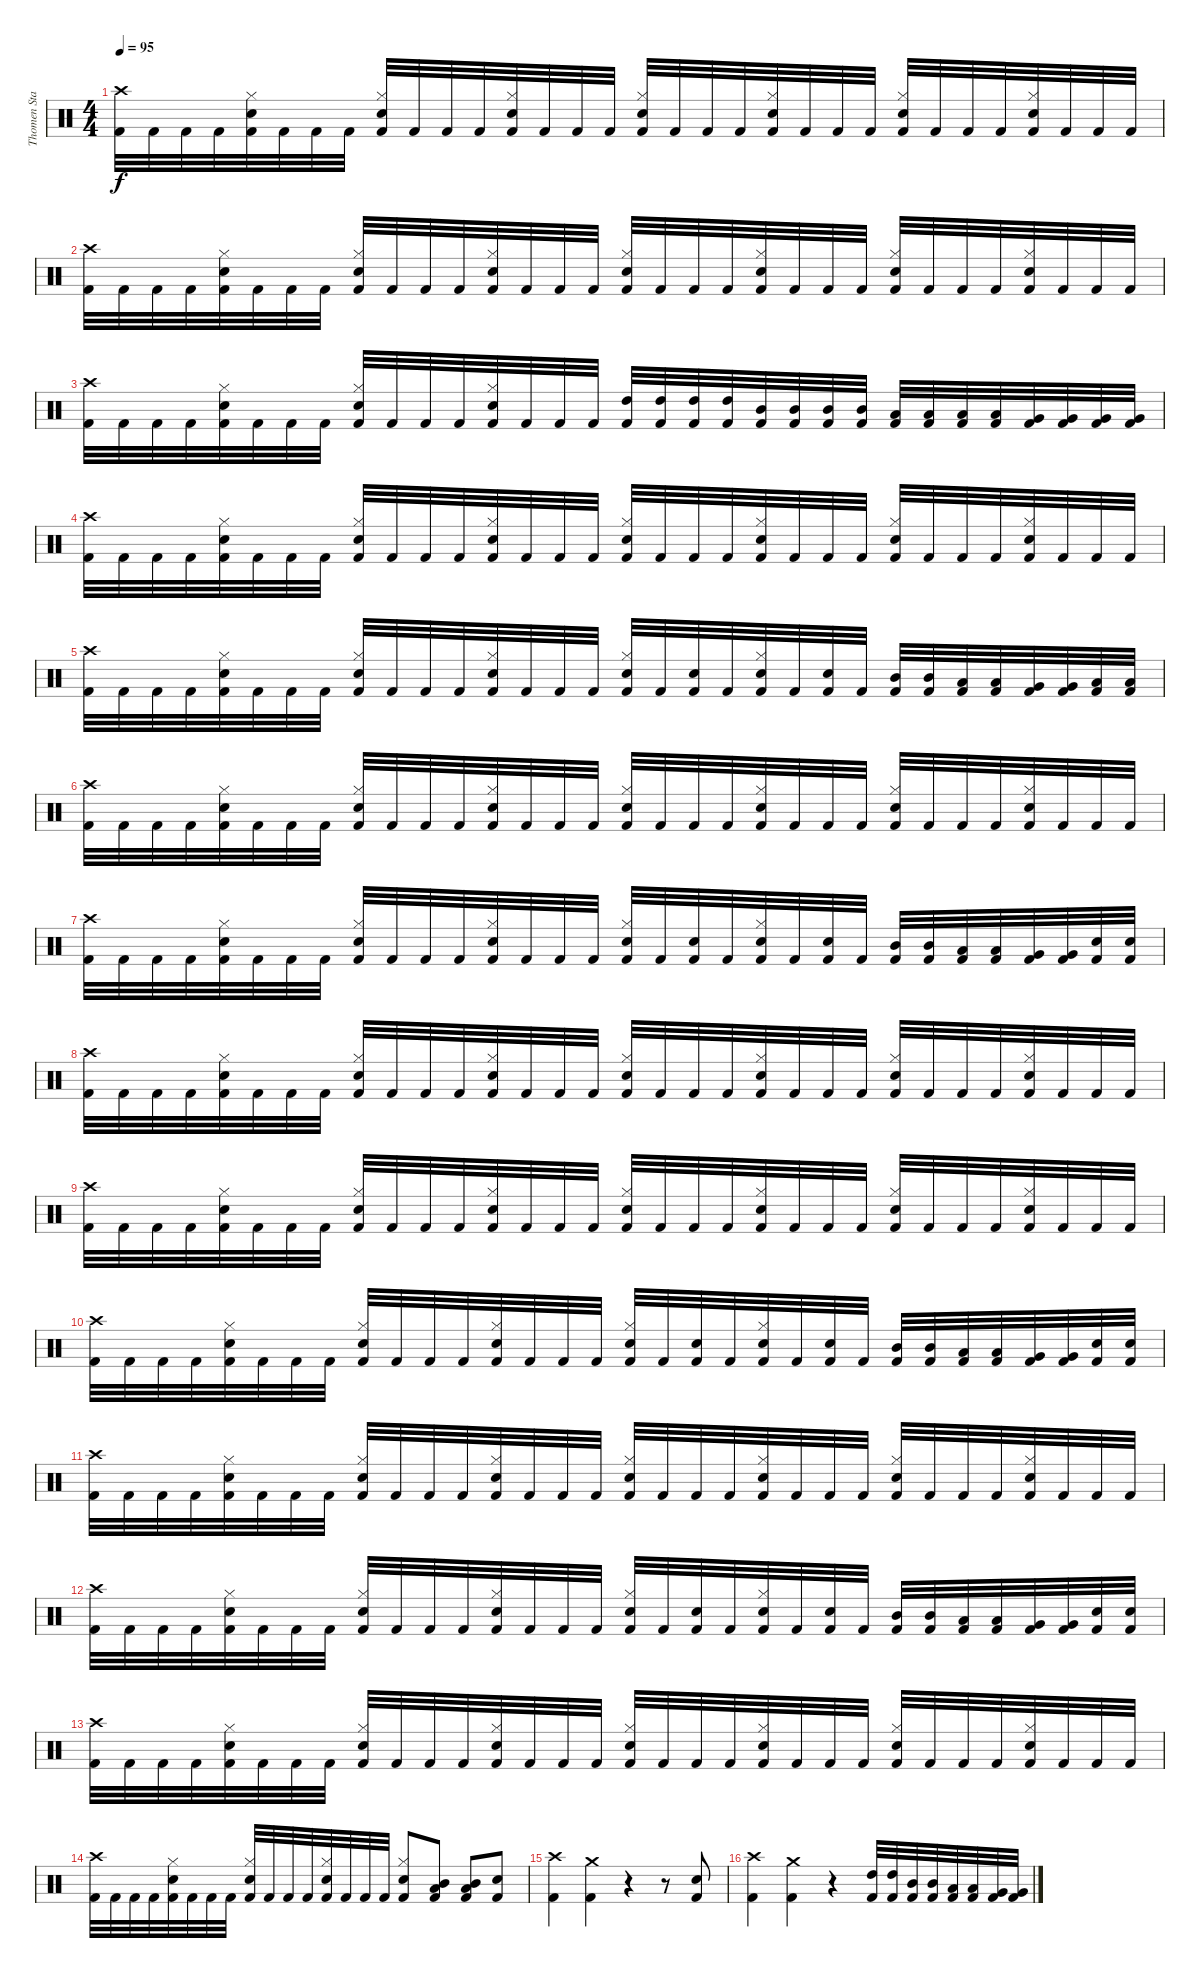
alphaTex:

\track ("Thomen Stauch" "Thomen Sta") {instrument percussion}
\staff {score}
\articulation defaults
\ts (4 4)
\tempo 95
\clef neutral
\ks c
("Crash high (hit)" "Kick (hit) 2").32{dy f} "Kick (hit) 2".32 "Kick (hit) 2".32 "Kick (hit) 2".32 ("Hi-Hat (closed)" "Snare (hit) 2" "Kick (hit) 2").32 "Kick (hit) 2".32 "Kick (hit) 2".32 "Kick (hit) 2".32 ("Hi-Hat (closed)" "Snare (hit) 2" "Kick (hit) 2").32 "Kick (hit) 2".32 "Kick (hit) 2".32 "Kick (hit) 2".32 ("Hi-Hat (closed)" "Snare (hit) 2" "Kick (hit) 2").32 "Kick (hit) 2".32 "Kick (hit) 2".32 "Kick (hit) 2".32 ("Hi-Hat (closed)" "Snare (hit) 2" "Kick (hit) 2").32 "Kick (hit) 2".32 "Kick (hit) 2".32 "Kick (hit) 2".32 ("Hi-Hat (closed)" "Snare (hit) 2" "Kick (hit) 2").32 "Kick (hit) 2".32 "Kick (hit) 2".32 "Kick (hit) 2".32 ("Hi-Hat (closed)" "Snare (hit) 2" "Kick (hit) 2").32 "Kick (hit) 2".32 "Kick (hit) 2".32 "Kick (hit) 2".32 ("Hi-Hat (closed)" "Snare (hit) 2" "Kick (hit) 2").32 "Kick (hit) 2".32 "Kick (hit) 2".32 "Kick (hit) 2".32 |
("Crash high (hit)" "Kick (hit) 2").32 "Kick (hit) 2".32 "Kick (hit) 2".32 "Kick (hit) 2".32 ("Hi-Hat (closed)" "Snare (hit) 2" "Kick (hit) 2").32 "Kick (hit) 2".32 "Kick (hit) 2".32 "Kick (hit) 2".32 ("Hi-Hat (closed)" "Snare (hit) 2" "Kick (hit) 2").32 "Kick (hit) 2".32 "Kick (hit) 2".32 "Kick (hit) 2".32 ("Hi-Hat (closed)" "Snare (hit) 2" "Kick (hit) 2").32 "Kick (hit) 2".32 "Kick (hit) 2".32 "Kick (hit) 2".32 ("Hi-Hat (closed)" "Snare (hit) 2" "Kick (hit) 2").32 "Kick (hit) 2".32 "Kick (hit) 2".32 "Kick (hit) 2".32 ("Hi-Hat (closed)" "Snare (hit) 2" "Kick (hit) 2").32 "Kick (hit) 2".32 "Kick (hit) 2".32 "Kick (hit) 2".32 ("Hi-Hat (closed)" "Snare (hit) 2" "Kick (hit) 2").32 "Kick (hit) 2".32 "Kick (hit) 2".32 "Kick (hit) 2".32 ("Hi-Hat (closed)" "Snare (hit) 2" "Kick (hit) 2").32 "Kick (hit) 2".32 "Kick (hit) 2".32 "Kick (hit) 2".32 |
("Crash high (hit)" "Kick (hit) 2").32 "Kick (hit) 2".32 "Kick (hit) 2".32 "Kick (hit) 2".32 ("Hi-Hat (closed)" "Snare (hit) 2" "Kick (hit) 2").32 "Kick (hit) 2".32 "Kick (hit) 2".32 "Kick (hit) 2".32 ("Hi-Hat (closed)" "Snare (hit) 2" "Kick (hit) 2").32 "Kick (hit) 2".32 "Kick (hit) 2".32 "Kick (hit) 2".32 ("Hi-Hat (closed)" "Snare (hit) 2" "Kick (hit) 2").32 "Kick (hit) 2".32 "Kick (hit) 2".32 "Kick (hit) 2".32 ("High Tom (hit)" "Kick (hit) 2").32 ("High Tom (hit)" "Kick (hit) 2").32 ("High Tom (hit)" "Kick (hit) 2").32 ("High Tom (hit)" "Kick (hit) 2").32 ("Mid Tom (hit)" "Kick (hit) 2").32 ("Mid Tom (hit)" "Kick (hit) 2").32 ("Mid Tom (hit)" "Kick (hit) 2").32 ("Mid Tom (hit)" "Kick (hit) 2").32 ("Low Tom (hit)" "Kick (hit) 2").32 ("Low Tom (hit)" "Kick (hit) 2").32 ("Low Tom (hit)" "Kick (hit) 2").32 ("Low Tom (hit)" "Kick (hit) 2").32 ("Very Low Tom (hit)" "Kick (hit) 2").32 ("Very Low Tom (hit)" "Kick (hit) 2").32 ("Very Low Tom (hit)" "Kick (hit) 2").32 ("Very Low Tom (hit)" "Kick (hit) 2").32 |
("Crash high (hit)" "Kick (hit) 2").32 "Kick (hit) 2".32 "Kick (hit) 2".32 "Kick (hit) 2".32 ("Hi-Hat (closed)" "Snare (hit) 2" "Kick (hit) 2").32 "Kick (hit) 2".32 "Kick (hit) 2".32 "Kick (hit) 2".32 ("Hi-Hat (closed)" "Snare (hit) 2" "Kick (hit) 2").32 "Kick (hit) 2".32 "Kick (hit) 2".32 "Kick (hit) 2".32 ("Hi-Hat (closed)" "Snare (hit) 2" "Kick (hit) 2").32 "Kick (hit) 2".32 "Kick (hit) 2".32 "Kick (hit) 2".32 ("Hi-Hat (closed)" "Snare (hit) 2" "Kick (hit) 2").32 "Kick (hit) 2".32 "Kick (hit) 2".32 "Kick (hit) 2".32 ("Hi-Hat (closed)" "Snare (hit) 2" "Kick (hit) 2").32 "Kick (hit) 2".32 "Kick (hit) 2".32 "Kick (hit) 2".32 ("Hi-Hat (closed)" "Snare (hit) 2" "Kick (hit) 2").32 "Kick (hit) 2".32 "Kick (hit) 2".32 "Kick (hit) 2".32 ("Hi-Hat (closed)" "Snare (hit) 2" "Kick (hit) 2").32 "Kick (hit) 2".32 "Kick (hit) 2".32 "Kick (hit) 2".32 |
("Crash high (hit)" "Kick (hit) 2").32 "Kick (hit) 2".32 "Kick (hit) 2".32 "Kick (hit) 2".32 ("Hi-Hat (closed)" "Snare (hit) 2" "Kick (hit) 2").32 "Kick (hit) 2".32 "Kick (hit) 2".32 "Kick (hit) 2".32 ("Hi-Hat (closed)" "Snare (hit) 2" "Kick (hit) 2").32 "Kick (hit) 2".32 "Kick (hit) 2".32 "Kick (hit) 2".32 ("Hi-Hat (closed)" "Snare (hit) 2" "Kick (hit) 2").32 "Kick (hit) 2".32 "Kick (hit) 2".32 "Kick (hit) 2".32 ("Hi-Hat (closed)" "Snare (hit) 2" "Kick (hit) 2").32 "Kick (hit) 2".32 ("Snare (hit) 2" "Kick (hit) 2").32 "Kick (hit) 2".32 ("Hi-Hat (closed)" "Snare (hit) 2" "Kick (hit) 2").32 "Kick (hit) 2".32 ("Snare (hit) 2" "Kick (hit) 2").32 "Kick (hit) 2".32 ("Mid Tom (hit)" "Kick (hit) 2").32 ("Mid Tom (hit)" "Kick (hit) 2").32 ("Low Tom (hit)" "Kick (hit) 2").32 ("Low Tom (hit)" "Kick (hit) 2").32 ("Very Low Tom (hit)" "Kick (hit) 2").32 ("Very Low Tom (hit)" "Kick (hit) 2").32 ("Low Floor Tom (hit)" "Kick (hit) 2").32 ("Low Floor Tom (hit)" "Kick (hit) 2").32 |
("Crash high (hit)" "Kick (hit) 2").32 "Kick (hit) 2".32 "Kick (hit) 2".32 "Kick (hit) 2".32 ("Hi-Hat (closed)" "Snare (hit) 2" "Kick (hit) 2").32 "Kick (hit) 2".32 "Kick (hit) 2".32 "Kick (hit) 2".32 ("Hi-Hat (closed)" "Snare (hit) 2" "Kick (hit) 2").32 "Kick (hit) 2".32 "Kick (hit) 2".32 "Kick (hit) 2".32 ("Hi-Hat (closed)" "Snare (hit) 2" "Kick (hit) 2").32 "Kick (hit) 2".32 "Kick (hit) 2".32 "Kick (hit) 2".32 ("Hi-Hat (closed)" "Snare (hit) 2" "Kick (hit) 2").32 "Kick (hit) 2".32 "Kick (hit) 2".32 "Kick (hit) 2".32 ("Hi-Hat (closed)" "Snare (hit) 2" "Kick (hit) 2").32 "Kick (hit) 2".32 "Kick (hit) 2".32 "Kick (hit) 2".32 ("Hi-Hat (closed)" "Snare (hit) 2" "Kick (hit) 2").32 "Kick (hit) 2".32 "Kick (hit) 2".32 "Kick (hit) 2".32 ("Hi-Hat (closed)" "Snare (hit) 2" "Kick (hit) 2").32 "Kick (hit) 2".32 "Kick (hit) 2".32 "Kick (hit) 2".32 |
("Crash high (hit)" "Kick (hit) 2").32 "Kick (hit) 2".32 "Kick (hit) 2".32 "Kick (hit) 2".32 ("Hi-Hat (closed)" "Snare (hit) 2" "Kick (hit) 2").32 "Kick (hit) 2".32 "Kick (hit) 2".32 "Kick (hit) 2".32 ("Hi-Hat (closed)" "Snare (hit) 2" "Kick (hit) 2").32 "Kick (hit) 2".32 "Kick (hit) 2".32 "Kick (hit) 2".32 ("Hi-Hat (closed)" "Snare (hit) 2" "Kick (hit) 2").32 "Kick (hit) 2".32 "Kick (hit) 2".32 "Kick (hit) 2".32 ("Hi-Hat (closed)" "Snare (hit) 2" "Kick (hit) 2").32 "Kick (hit) 2".32 ("Snare (hit) 2" "Kick (hit) 2").32 "Kick (hit) 2".32 ("Hi-Hat (closed)" "Snare (hit) 2" "Kick (hit) 2").32 "Kick (hit) 2".32 ("Snare (hit) 2" "Kick (hit) 2").32 "Kick (hit) 2".32 ("Mid Tom (hit)" "Kick (hit) 2").32 ("Mid Tom (hit)" "Kick (hit) 2").32 ("Low Tom (hit)" "Kick (hit) 2").32 ("Low Tom (hit)" "Kick (hit) 2").32 ("Very Low Tom (hit)" "Kick (hit) 2").32 ("Very Low Tom (hit)" "Kick (hit) 2").32 ("Snare (hit) 2" "Kick (hit) 2").32 ("Snare (hit) 2" "Kick (hit) 2").32 |
("Crash high (hit)" "Kick (hit) 2").32 "Kick (hit) 2".32 "Kick (hit) 2".32 "Kick (hit) 2".32 ("Hi-Hat (closed)" "Snare (hit) 2" "Kick (hit) 2").32 "Kick (hit) 2".32 "Kick (hit) 2".32 "Kick (hit) 2".32 ("Hi-Hat (closed)" "Snare (hit) 2" "Kick (hit) 2").32 "Kick (hit) 2".32 "Kick (hit) 2".32 "Kick (hit) 2".32 ("Hi-Hat (closed)" "Snare (hit) 2" "Kick (hit) 2").32 "Kick (hit) 2".32 "Kick (hit) 2".32 "Kick (hit) 2".32 ("Hi-Hat (closed)" "Snare (hit) 2" "Kick (hit) 2").32 "Kick (hit) 2".32 "Kick (hit) 2".32 "Kick (hit) 2".32 ("Hi-Hat (closed)" "Snare (hit) 2" "Kick (hit) 2").32 "Kick (hit) 2".32 "Kick (hit) 2".32 "Kick (hit) 2".32 ("Hi-Hat (closed)" "Snare (hit) 2" "Kick (hit) 2").32 "Kick (hit) 2".32 "Kick (hit) 2".32 "Kick (hit) 2".32 ("Hi-Hat (closed)" "Snare (hit) 2" "Kick (hit) 2").32 "Kick (hit) 2".32 "Kick (hit) 2".32 "Kick (hit) 2".32 |
("Crash high (hit)" "Kick (hit) 2").32 "Kick (hit) 2".32 "Kick (hit) 2".32 "Kick (hit) 2".32 ("Hi-Hat (closed)" "Snare (hit) 2" "Kick (hit) 2").32 "Kick (hit) 2".32 "Kick (hit) 2".32 "Kick (hit) 2".32 ("Hi-Hat (closed)" "Snare (hit) 2" "Kick (hit) 2").32 "Kick (hit) 2".32 "Kick (hit) 2".32 "Kick (hit) 2".32 ("Hi-Hat (closed)" "Snare (hit) 2" "Kick (hit) 2").32 "Kick (hit) 2".32 "Kick (hit) 2".32 "Kick (hit) 2".32 ("Hi-Hat (closed)" "Snare (hit) 2" "Kick (hit) 2").32 "Kick (hit) 2".32 "Kick (hit) 2".32 "Kick (hit) 2".32 ("Hi-Hat (closed)" "Snare (hit) 2" "Kick (hit) 2").32 "Kick (hit) 2".32 "Kick (hit) 2".32 "Kick (hit) 2".32 ("Hi-Hat (closed)" "Snare (hit) 2" "Kick (hit) 2").32 "Kick (hit) 2".32 "Kick (hit) 2".32 "Kick (hit) 2".32 ("Hi-Hat (closed)" "Snare (hit) 2" "Kick (hit) 2").32 "Kick (hit) 2".32 "Kick (hit) 2".32 "Kick (hit) 2".32 |
("Crash high (hit)" "Kick (hit) 2").32 "Kick (hit) 2".32 "Kick (hit) 2".32 "Kick (hit) 2".32 ("Hi-Hat (closed)" "Snare (hit) 2" "Kick (hit) 2").32 "Kick (hit) 2".32 "Kick (hit) 2".32 "Kick (hit) 2".32 ("Hi-Hat (closed)" "Snare (hit) 2" "Kick (hit) 2").32 "Kick (hit) 2".32 "Kick (hit) 2".32 "Kick (hit) 2".32 ("Hi-Hat (closed)" "Snare (hit) 2" "Kick (hit) 2").32 "Kick (hit) 2".32 "Kick (hit) 2".32 "Kick (hit) 2".32 ("Hi-Hat (closed)" "Snare (hit) 2" "Kick (hit) 2").32 "Kick (hit) 2".32 ("Snare (hit) 2" "Kick (hit) 2").32 "Kick (hit) 2".32 ("Hi-Hat (closed)" "Snare (hit) 2" "Kick (hit) 2").32 "Kick (hit) 2".32 ("Snare (hit) 2" "Kick (hit) 2").32 "Kick (hit) 2".32 ("Mid Tom (hit)" "Kick (hit) 2").32 ("Mid Tom (hit)" "Kick (hit) 2").32 ("Low Tom (hit)" "Kick (hit) 2").32 ("Low Tom (hit)" "Kick (hit) 2").32 ("Very Low Tom (hit)" "Kick (hit) 2").32 ("Very Low Tom (hit)" "Kick (hit) 2").32 ("Snare (hit) 2" "Kick (hit) 2").32 ("Snare (hit) 2" "Kick (hit) 2").32 |
("Crash high (hit)" "Kick (hit) 2").32 "Kick (hit) 2".32 "Kick (hit) 2".32 "Kick (hit) 2".32 ("Hi-Hat (closed)" "Snare (hit) 2" "Kick (hit) 2").32 "Kick (hit) 2".32 "Kick (hit) 2".32 "Kick (hit) 2".32 ("Hi-Hat (closed)" "Snare (hit) 2" "Kick (hit) 2").32 "Kick (hit) 2".32 "Kick (hit) 2".32 "Kick (hit) 2".32 ("Hi-Hat (closed)" "Snare (hit) 2" "Kick (hit) 2").32 "Kick (hit) 2".32 "Kick (hit) 2".32 "Kick (hit) 2".32 ("Hi-Hat (closed)" "Snare (hit) 2" "Kick (hit) 2").32 "Kick (hit) 2".32 "Kick (hit) 2".32 "Kick (hit) 2".32 ("Hi-Hat (closed)" "Snare (hit) 2" "Kick (hit) 2").32 "Kick (hit) 2".32 "Kick (hit) 2".32 "Kick (hit) 2".32 ("Hi-Hat (closed)" "Snare (hit) 2" "Kick (hit) 2").32 "Kick (hit) 2".32 "Kick (hit) 2".32 "Kick (hit) 2".32 ("Hi-Hat (closed)" "Snare (hit) 2" "Kick (hit) 2").32 "Kick (hit) 2".32 "Kick (hit) 2".32 "Kick (hit) 2".32 |
("Crash high (hit)" "Kick (hit) 2").32 "Kick (hit) 2".32 "Kick (hit) 2".32 "Kick (hit) 2".32 ("Hi-Hat (closed)" "Snare (hit) 2" "Kick (hit) 2").32 "Kick (hit) 2".32 "Kick (hit) 2".32 "Kick (hit) 2".32 ("Hi-Hat (closed)" "Snare (hit) 2" "Kick (hit) 2").32 "Kick (hit) 2".32 "Kick (hit) 2".32 "Kick (hit) 2".32 ("Hi-Hat (closed)" "Snare (hit) 2" "Kick (hit) 2").32 "Kick (hit) 2".32 "Kick (hit) 2".32 "Kick (hit) 2".32 ("Hi-Hat (closed)" "Snare (hit) 2" "Kick (hit) 2").32 "Kick (hit) 2".32 ("Snare (hit) 2" "Kick (hit) 2").32 "Kick (hit) 2".32 ("Hi-Hat (closed)" "Snare (hit) 2" "Kick (hit) 2").32 "Kick (hit) 2".32 ("Snare (hit) 2" "Kick (hit) 2").32 "Kick (hit) 2".32 ("Mid Tom (hit)" "Kick (hit) 2").32 ("Mid Tom (hit)" "Kick (hit) 2").32 ("Low Tom (hit)" "Kick (hit) 2").32 ("Low Tom (hit)" "Kick (hit) 2").32 ("Very Low Tom (hit)" "Kick (hit) 2").32 ("Very Low Tom (hit)" "Kick (hit) 2").32 ("Snare (hit) 2" "Kick (hit) 2").32 ("Snare (hit) 2" "Kick (hit) 2").32 |
("Crash high (hit)" "Kick (hit) 2").32 "Kick (hit) 2".32 "Kick (hit) 2".32 "Kick (hit) 2".32 ("Hi-Hat (closed)" "Snare (hit) 2" "Kick (hit) 2").32 "Kick (hit) 2".32 "Kick (hit) 2".32 "Kick (hit) 2".32 ("Hi-Hat (closed)" "Snare (hit) 2" "Kick (hit) 2").32 "Kick (hit) 2".32 "Kick (hit) 2".32 "Kick (hit) 2".32 ("Hi-Hat (closed)" "Snare (hit) 2" "Kick (hit) 2").32 "Kick (hit) 2".32 "Kick (hit) 2".32 "Kick (hit) 2".32 ("Hi-Hat (closed)" "Snare (hit) 2" "Kick (hit) 2").32 "Kick (hit) 2".32 "Kick (hit) 2".32 "Kick (hit) 2".32 ("Hi-Hat (closed)" "Snare (hit) 2" "Kick (hit) 2").32 "Kick (hit) 2".32 "Kick (hit) 2".32 "Kick (hit) 2".32 ("Hi-Hat (closed)" "Snare (hit) 2" "Kick (hit) 2").32 "Kick (hit) 2".32 "Kick (hit) 2".32 "Kick (hit) 2".32 ("Hi-Hat (closed)" "Snare (hit) 2" "Kick (hit) 2").32 "Kick (hit) 2".32 "Kick (hit) 2".32 "Kick (hit) 2".32 |
("Crash high (hit)" "Kick (hit) 2").32 "Kick (hit) 2".32 "Kick (hit) 2".32 "Kick (hit) 2".32 ("Hi-Hat (closed)" "Snare (hit) 2" "Kick (hit) 2").32 "Kick (hit) 2".32 "Kick (hit) 2".32 "Kick (hit) 2".32 ("Hi-Hat (closed)" "Snare (hit) 2" "Kick (hit) 2").32 "Kick (hit) 2".32 "Kick (hit) 2".32 "Kick (hit) 2".32 ("Hi-Hat (closed)" "Snare (hit) 2" "Kick (hit) 2").32 "Kick (hit) 2".32 "Kick (hit) 2".32 "Kick (hit) 2".32 ("Hi-Hat (closed)" "Snare (hit) 2" "Kick (hit) 2").8 ("Mid Tom (hit)" "Low Tom (hit)" "Kick (hit) 2").8 ("Mid Tom (hit)" "Low Tom (hit)" "Kick (hit) 2").8 ("Snare (hit) 2" "Kick (hit) 2").8 |
("Crash high (hit)" "Kick (hit) 2").4 ("Crash medium (hit)" "Kick (hit) 2").4 r.4 r.8 ("Snare (hit) 2" "Kick (hit) 2").8 |
("Crash high (hit)" "Kick (hit) 2").4 ("Crash medium (hit)" "Kick (hit) 2").4 r.4 ("High Tom (hit)" "Kick (hit) 2").32 ("High Tom (hit)" "Kick (hit) 2").32 ("Mid Tom (hit)" "Kick (hit) 2").32 ("Mid Tom (hit)" "Kick (hit) 2").32 ("Low Tom (hit)" "Kick (hit) 2").32 ("Low Tom (hit)" "Kick (hit) 2").32 ("Very Low Tom (hit)" "Kick (hit) 2").32 ("Very Low Tom (hit)" "Kick (hit) 2").32
